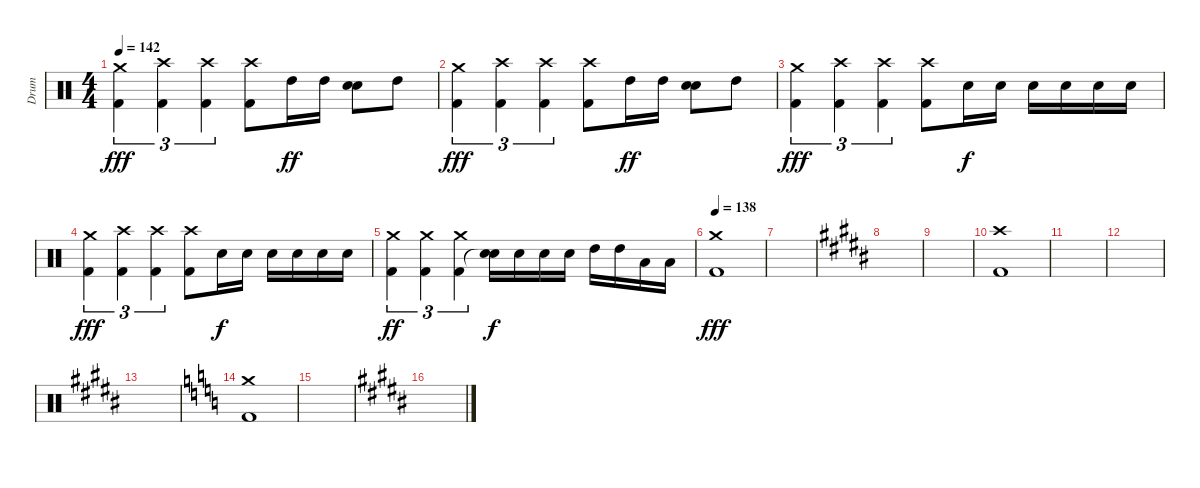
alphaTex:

\track ("Drum" "Drum") {instrument percussion}
\staff {score}
\articulation defaults
\ts (4 4)
\tempo 142
\clef neutral
\ks c
("Crash medium (hit)" "Kick (hit) 2").4{tu (3 2) dy fff} ("Crash high (hit)" "Kick (hit) 2").4{tu (3 2)} ("Crash high (hit)" "Kick (hit) 2").4{tu (3 2)} ("Crash high (hit)" "Kick (hit) 2").8 "High Tom (hit)".16{dy ff} "High Tom (hit)".16 ("Electric Snare (hit)" "Electric Snare (hit)").8{bu 240} "High Tom (hit)".8 |
("Crash medium (hit)" "Kick (hit) 2").4{tu (3 2) dy fff} ("Crash high (hit)" "Kick (hit) 2").4{tu (3 2)} ("Crash high (hit)" "Kick (hit) 2").4{tu (3 2)} ("Crash high (hit)" "Kick (hit) 2").8 "High Tom (hit)".16{dy ff} "High Tom (hit)".16 ("Electric Snare (hit)" "Electric Snare (hit)").8{bu 240} "High Tom (hit)".8 |
("Crash medium (hit)" "Kick (hit) 2").4{tu (3 2) dy fff} ("Crash high (hit)" "Kick (hit) 2").4{tu (3 2)} ("Crash high (hit)" "Kick (hit) 2").4{tu (3 2)} ("Crash high (hit)" "Kick (hit) 2").8 "Electric Snare (hit)".16{dy f} "Electric Snare (hit)".16 "Electric Snare (hit)".16 "Electric Snare (hit)".16 "Electric Snare (hit)".16 "Electric Snare (hit)".16 |
("Crash medium (hit)" "Kick (hit) 2").4{tu (3 2) dy fff} ("Crash high (hit)" "Kick (hit) 2").4{tu (3 2)} ("Crash high (hit)" "Kick (hit) 2").4{tu (3 2)} ("Crash high (hit)" "Kick (hit) 2").8 "Electric Snare (hit)".16{dy f} "Electric Snare (hit)".16 "Electric Snare (hit)".16 "Electric Snare (hit)".16 "Electric Snare (hit)".16 "Electric Snare (hit)".16 |
("Crash medium (hit)" "Kick (hit) 2").4{tu (3 2) dy ff} ("Crash medium (hit)" "Kick (hit) 2").4{tu (3 2)} ("Crash medium (hit)" "Kick (hit) 2").4{tu (3 2)} ("Electric Snare (hit)" "Snare (hit)"{t}).16{dy f} "Electric Snare (hit)".16 "Electric Snare (hit)".16 "Electric Snare (hit)".16 "High Tom (hit)".16 "High Tom (hit)".16 "Low Floor Tom (hit)".16 "Low Floor Tom (hit)".16 |
\tempo 138
("Crash medium (hit)" "Kick (hit) 2").1{dy fff} |
|
\ks g#minor
|
|
\ks b
("Crash high (hit)" "Kick (hit) 2").1 |
\ks g#minor
|
|
|
\ks c
("Crash medium (hit)" "Kick (hit) 2").1 |
|
\ks g#minor
